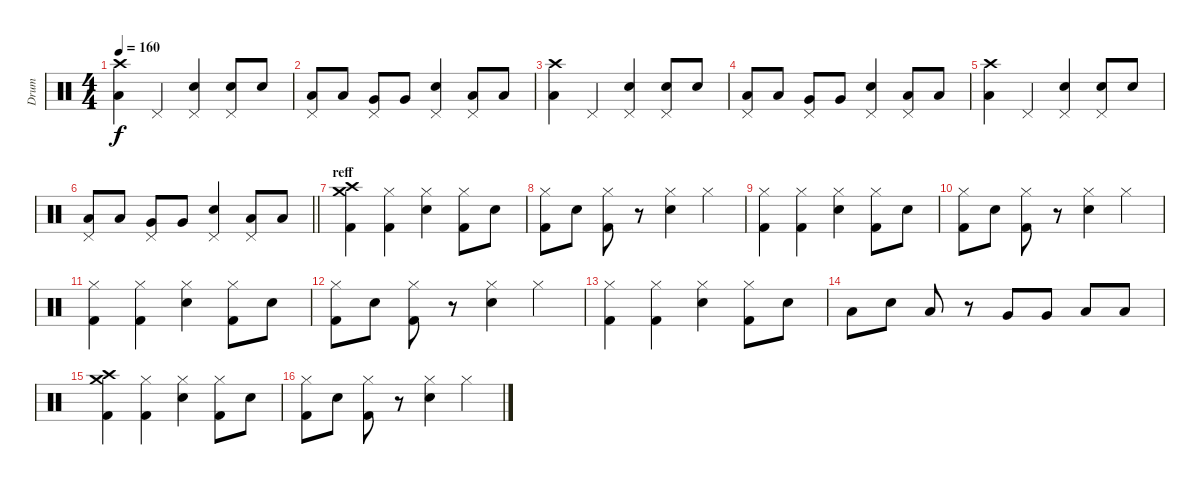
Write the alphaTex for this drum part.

\track ("Drum" "Drum") {instrument percussion}
\staff {score}
\articulation defaults
\ts (4 4)
\tempo 160
\clef neutral
\ks c
("Crash high (hit)" "Low Floor Tom (hit)").4{dy f} "Pedal Hi-Hat (hit)".4 ("Electric Snare (hit)" "Pedal Hi-Hat (hit)").4 ("Electric Snare (hit)" "Pedal Hi-Hat (hit)").8 "Electric Snare (hit)".8 |
("Low Floor Tom (hit)" "Pedal Hi-Hat (hit)").8 "Low Floor Tom (hit)".8 ("Very Low Tom (hit)" "Pedal Hi-Hat (hit)").8 "Very Low Tom (hit)".8 ("Electric Snare (hit)" "Pedal Hi-Hat (hit)").4 ("Low Floor Tom (hit)" "Pedal Hi-Hat (hit)").8 "Low Floor Tom (hit)".8 |
("Crash high (hit)" "Low Floor Tom (hit)").4 "Pedal Hi-Hat (hit)".4 ("Electric Snare (hit)" "Pedal Hi-Hat (hit)").4 ("Electric Snare (hit)" "Pedal Hi-Hat (hit)").8 "Electric Snare (hit)".8 |
("Low Floor Tom (hit)" "Pedal Hi-Hat (hit)").8 "Low Floor Tom (hit)".8 ("Very Low Tom (hit)" "Pedal Hi-Hat (hit)").8 "Very Low Tom (hit)".8 ("Electric Snare (hit)" "Pedal Hi-Hat (hit)").4 ("Low Floor Tom (hit)" "Pedal Hi-Hat (hit)").8 "Low Floor Tom (hit)".8 |
("Crash high (hit)" "Low Floor Tom (hit)").4 "Pedal Hi-Hat (hit)".4 ("Electric Snare (hit)" "Pedal Hi-Hat (hit)").4 ("Electric Snare (hit)" "Pedal Hi-Hat (hit)").8 "Electric Snare (hit)".8 |
\barLineRight lightlight
("Low Floor Tom (hit)" "Pedal Hi-Hat (hit)").8 "Low Floor Tom (hit)".8 ("Very Low Tom (hit)" "Pedal Hi-Hat (hit)").8 "Very Low Tom (hit)".8 ("Electric Snare (hit)" "Pedal Hi-Hat (hit)").4 ("Low Floor Tom (hit)" "Pedal Hi-Hat (hit)").8 "Low Floor Tom (hit)".8 |
\section ("" "reff")
("Crash high (hit)" "Crash medium (hit)" "Kick (hit) 2").4 ("Hi-Hat (closed)" "Kick (hit) 2").4 ("Hi-Hat (closed)" "Electric Snare (hit)").4 ("Hi-Hat (closed)" "Kick (hit) 2").8 "Electric Snare (hit)".8 |
("Hi-Hat (closed)" "Kick (hit) 2").8 "Electric Snare (hit)".8 ("Hi-Hat (closed)" "Kick (hit) 2").8 r.8 ("Hi-Hat (closed)" "Electric Snare (hit)").4 "Hi-Hat (closed)".4 |
("Hi-Hat (closed)" "Kick (hit) 2").4 ("Hi-Hat (closed)" "Kick (hit) 2").4 ("Hi-Hat (closed)" "Electric Snare (hit)").4 ("Hi-Hat (closed)" "Kick (hit) 2").8 "Electric Snare (hit)".8 |
("Hi-Hat (closed)" "Kick (hit) 2").8 "Electric Snare (hit)".8 ("Hi-Hat (closed)" "Kick (hit) 2").8 r.8 ("Hi-Hat (closed)" "Electric Snare (hit)").4 "Hi-Hat (closed)".4 |
("Hi-Hat (closed)" "Kick (hit) 2").4 ("Hi-Hat (closed)" "Kick (hit) 2").4 ("Hi-Hat (closed)" "Electric Snare (hit)").4 ("Hi-Hat (closed)" "Kick (hit) 2").8 "Electric Snare (hit)".8 |
("Hi-Hat (closed)" "Kick (hit) 2").8 "Electric Snare (hit)".8 ("Hi-Hat (closed)" "Kick (hit) 2").8 r.8 ("Hi-Hat (closed)" "Electric Snare (hit)").4 "Hi-Hat (closed)".4 |
("Hi-Hat (closed)" "Kick (hit) 2").4 ("Hi-Hat (closed)" "Kick (hit) 2").4 ("Hi-Hat (closed)" "Electric Snare (hit)").4 ("Hi-Hat (closed)" "Kick (hit) 2").8 "Electric Snare (hit)".8 |
"Low Floor Tom (hit)".8 "Electric Snare (hit)".8 "Low Floor Tom (hit)".8 r.8 "Very Low Tom (hit)".8 "Very Low Tom (hit)".8 "Low Tom (hit)".8 "Low Tom (hit)".8 |
("Crash high (hit)" "Crash medium (hit)" "Kick (hit) 2").4 ("Hi-Hat (closed)" "Kick (hit) 2").4 ("Hi-Hat (closed)" "Electric Snare (hit)").4 ("Hi-Hat (closed)" "Kick (hit) 2").8 "Electric Snare (hit)".8 |
("Hi-Hat (closed)" "Kick (hit) 2").8 "Electric Snare (hit)".8 ("Hi-Hat (closed)" "Kick (hit) 2").8 r.8 ("Hi-Hat (closed)" "Electric Snare (hit)").4 "Hi-Hat (closed)".4
